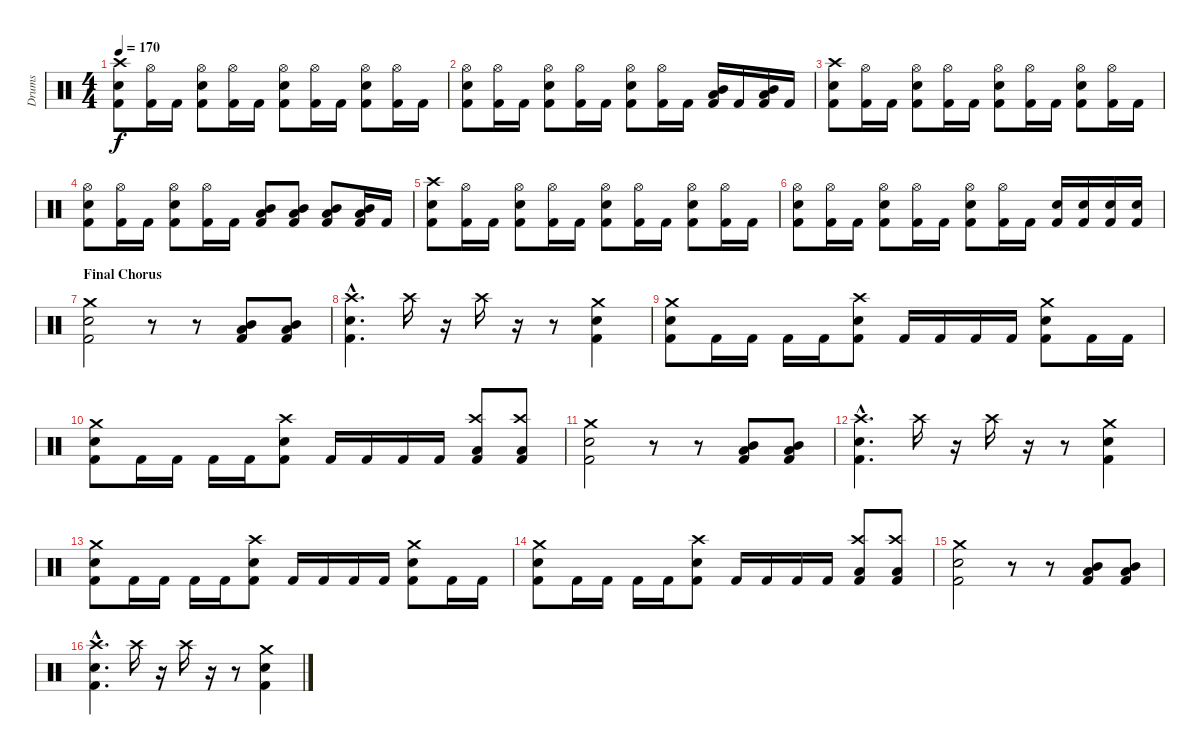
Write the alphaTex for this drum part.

\track ("Drums" "Drums") {instrument percussion}
\staff {score}
\articulation defaults
\ts (4 4)
\tempo 170
\clef neutral
\ks c
("Kick (hit) 2" "Snare (hit) 2" "Crash high (hit)").8{dy f} ("Kick (hit) 2" "Hi-Hat (open)").16 "Kick (hit) 2".16 ("Kick (hit) 2" "Snare (hit) 2" "Hi-Hat (open)").8 ("Kick (hit) 2" "Hi-Hat (open)").16 "Kick (hit) 2".16 ("Kick (hit) 2" "Snare (hit) 2" "Hi-Hat (open)").8 ("Kick (hit) 2" "Hi-Hat (open)").16 "Kick (hit) 2".16 ("Kick (hit) 2" "Snare (hit) 2" "Hi-Hat (open)").8 ("Kick (hit) 2" "Hi-Hat (open)").16 "Kick (hit) 2".16 |
("Kick (hit) 2" "Snare (hit) 2" "Hi-Hat (open)").8 ("Kick (hit) 2" "Hi-Hat (open)").16 "Kick (hit) 2".16 ("Kick (hit) 2" "Snare (hit) 2" "Hi-Hat (open)").8 ("Kick (hit) 2" "Hi-Hat (open)").16 "Kick (hit) 2".16 ("Kick (hit) 2" "Snare (hit) 2" "Hi-Hat (open)").8 ("Kick (hit) 2" "Hi-Hat (open)").16 "Kick (hit) 2".16 ("Kick (hit) 2" "Mid Tom (hit)" "Low Tom (hit)").16 "Kick (hit) 2".16 ("Kick (hit) 2" "Mid Tom (hit)" "Low Tom (hit)").16 "Kick (hit) 2".16 |
("Kick (hit) 2" "Snare (hit) 2" "Crash high (hit)").8 ("Kick (hit) 2" "Hi-Hat (open)").16 "Kick (hit) 2".16 ("Kick (hit) 2" "Snare (hit) 2" "Hi-Hat (open)").8 ("Kick (hit) 2" "Hi-Hat (open)").16 "Kick (hit) 2".16 ("Kick (hit) 2" "Snare (hit) 2" "Hi-Hat (open)").8 ("Kick (hit) 2" "Hi-Hat (open)").16 "Kick (hit) 2".16 ("Kick (hit) 2" "Snare (hit) 2" "Hi-Hat (open)").8 ("Kick (hit) 2" "Hi-Hat (open)").16 "Kick (hit) 2".16 |
("Kick (hit) 2" "Snare (hit) 2" "Hi-Hat (open)").8 ("Kick (hit) 2" "Hi-Hat (open)").16 "Kick (hit) 2".16 ("Kick (hit) 2" "Snare (hit) 2" "Hi-Hat (open)").8 ("Kick (hit) 2" "Hi-Hat (open)").16 "Kick (hit) 2".16 ("Kick (hit) 2" "Mid Tom (hit)" "Low Tom (hit)").8 ("Kick (hit) 2" "Mid Tom (hit)" "Low Tom (hit)").8 ("Kick (hit) 2" "Mid Tom (hit)" "Low Tom (hit)").8 ("Kick (hit) 2" "Mid Tom (hit)" "Low Tom (hit)").16 "Kick (hit) 2".16 |
("Kick (hit) 2" "Snare (hit) 2" "Crash high (hit)").8 ("Kick (hit) 2" "Hi-Hat (open)").16 "Kick (hit) 2".16 ("Kick (hit) 2" "Snare (hit) 2" "Hi-Hat (open)").8 ("Kick (hit) 2" "Hi-Hat (open)").16 "Kick (hit) 2".16 ("Kick (hit) 2" "Snare (hit) 2" "Hi-Hat (open)").8 ("Kick (hit) 2" "Hi-Hat (open)").16 "Kick (hit) 2".16 ("Kick (hit) 2" "Snare (hit) 2" "Hi-Hat (open)").8 ("Kick (hit) 2" "Hi-Hat (open)").16 "Kick (hit) 2".16 |
("Kick (hit) 2" "Snare (hit) 2" "Hi-Hat (open)").8 ("Kick (hit) 2" "Hi-Hat (open)").16 "Kick (hit) 2".16 ("Kick (hit) 2" "Snare (hit) 2" "Hi-Hat (open)").8 ("Kick (hit) 2" "Hi-Hat (open)").16 "Kick (hit) 2".16 ("Kick (hit) 2" "Snare (hit) 2" "Hi-Hat (open)").8 ("Kick (hit) 2" "Hi-Hat (open)").16 "Kick (hit) 2".16 ("Kick (hit) 2" "Snare (hit) 2").16 ("Kick (hit) 2" "Snare (hit) 2").16 ("Kick (hit) 2" "Snare (hit) 2").16 ("Kick (hit) 2" "Snare (hit) 2").16 |
\section ("" "Final Chorus")
("Kick (hit) 2" "Snare (hit) 2" "Crash medium (hit)").2 r.8 r.8 ("Kick (hit) 2" "Low Tom (hit)" "Mid Tom (hit)").8 ("Kick (hit) 2" "Low Tom (hit)" "Mid Tom (hit)").8 |
("Kick (hit) 2"{hac} "Snare (hit) 2"{hac} "Crash high (hit)"{hac}).4{d} "Crash high (hit)".16 r.16 "Crash high (hit)".16 r.16 r.8 ("Kick (hit) 2" "Snare (hit) 2" "Crash medium (hit)").4 |
("Kick (hit) 2" "Snare (hit) 2" "Crash medium (hit)").8 "Kick (hit) 2".16 "Kick (hit) 2".16 "Kick (hit) 2".16 "Kick (hit) 2".16 ("Kick (hit) 2" "Snare (hit) 2" "Crash high (hit)").8 "Kick (hit) 2".16 "Kick (hit) 2".16 "Kick (hit) 2".16 "Kick (hit) 2".16 ("Kick (hit) 2" "Snare (hit) 2" "Crash medium (hit)").8 "Kick (hit) 2".16 "Kick (hit) 2".16 |
("Kick (hit) 2" "Snare (hit) 2" "Crash medium (hit)").8 "Kick (hit) 2".16 "Kick (hit) 2".16 "Kick (hit) 2".16 "Kick (hit) 2".16 ("Kick (hit) 2" "Snare (hit) 2" "Crash high (hit)").8 "Kick (hit) 2".16 "Kick (hit) 2".16 "Kick (hit) 2".16 "Kick (hit) 2".16 ("Kick (hit) 2" "Low Tom (hit)" "Crash high (hit)").8 ("Kick (hit) 2" "Low Tom (hit)" "Crash high (hit)").8 |
("Kick (hit) 2" "Snare (hit) 2" "Crash medium (hit)").2 r.8 r.8 ("Kick (hit) 2" "Low Tom (hit)" "Mid Tom (hit)").8 ("Kick (hit) 2" "Low Tom (hit)" "Mid Tom (hit)").8 |
("Kick (hit) 2"{hac} "Snare (hit) 2"{hac} "Crash high (hit)"{hac}).4{d} "Crash high (hit)".16 r.16 "Crash high (hit)".16 r.16 r.8 ("Kick (hit) 2" "Snare (hit) 2" "Crash medium (hit)").4 |
("Kick (hit) 2" "Snare (hit) 2" "Crash medium (hit)").8 "Kick (hit) 2".16 "Kick (hit) 2".16 "Kick (hit) 2".16 "Kick (hit) 2".16 ("Kick (hit) 2" "Snare (hit) 2" "Crash high (hit)").8 "Kick (hit) 2".16 "Kick (hit) 2".16 "Kick (hit) 2".16 "Kick (hit) 2".16 ("Kick (hit) 2" "Snare (hit) 2" "Crash medium (hit)").8 "Kick (hit) 2".16 "Kick (hit) 2".16 |
("Kick (hit) 2" "Snare (hit) 2" "Crash medium (hit)").8 "Kick (hit) 2".16 "Kick (hit) 2".16 "Kick (hit) 2".16 "Kick (hit) 2".16 ("Kick (hit) 2" "Snare (hit) 2" "Crash high (hit)").8 "Kick (hit) 2".16 "Kick (hit) 2".16 "Kick (hit) 2".16 "Kick (hit) 2".16 ("Kick (hit) 2" "Low Tom (hit)" "Crash high (hit)").8 ("Kick (hit) 2" "Low Tom (hit)" "Crash high (hit)").8 |
("Kick (hit) 2" "Snare (hit) 2" "Crash medium (hit)").2 r.8 r.8 ("Kick (hit) 2" "Low Tom (hit)" "Mid Tom (hit)").8 ("Kick (hit) 2" "Low Tom (hit)" "Mid Tom (hit)").8 |
("Kick (hit) 2"{hac} "Snare (hit) 2"{hac} "Crash high (hit)"{hac}).4{d} "Crash high (hit)".16 r.16 "Crash high (hit)".16 r.16 r.8 ("Kick (hit) 2" "Snare (hit) 2" "Crash medium (hit)").4
